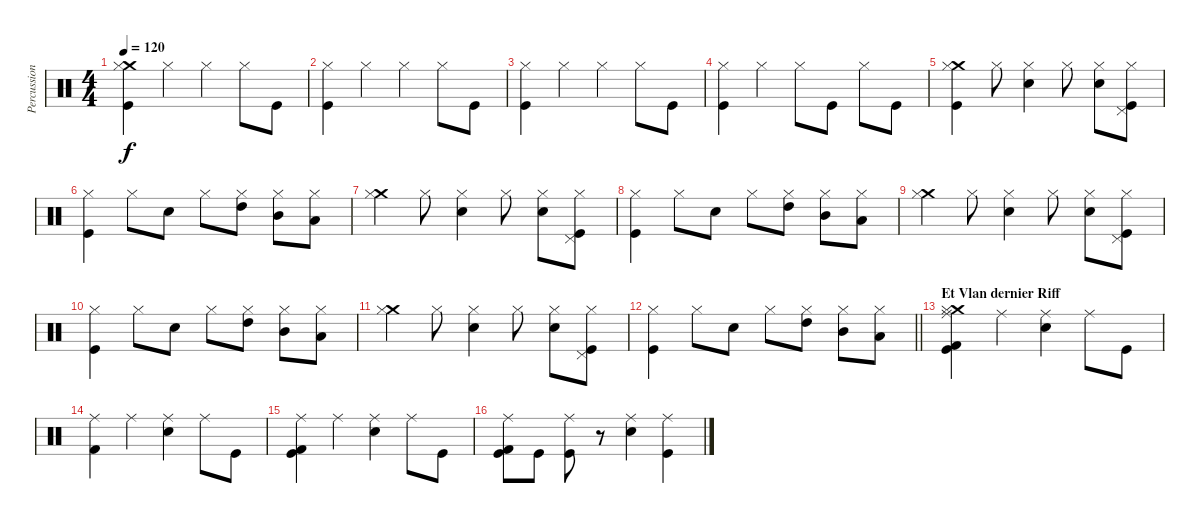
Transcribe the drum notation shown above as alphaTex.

\track ("Percussions" "Percussion") {instrument percussion}
\staff {score}
\articulation defaults
\ts (4 4)
\tempo 120
\clef neutral
\ks c
("Kick (hit)" "Crash medium (hit)" "Hi-Hat (closed)").4{dy f} "Hi-Hat (closed)".4 "Hi-Hat (closed)".4 "Hi-Hat (closed)".8 "Kick (hit)".8 |
("Kick (hit)" "Hi-Hat (closed)").4 "Hi-Hat (closed)".4 "Hi-Hat (closed)".4 "Hi-Hat (closed)".8 "Kick (hit)".8 |
("Kick (hit)" "Hi-Hat (closed)").4 "Hi-Hat (closed)".4 "Hi-Hat (closed)".4 "Hi-Hat (closed)".8 "Kick (hit)".8 |
("Kick (hit)" "Hi-Hat (closed)").4 "Hi-Hat (closed)".4 "Hi-Hat (closed)".8 "Kick (hit)".8 "Hi-Hat (closed)".8 "Kick (hit)".8 |
("Kick (hit)" "Crash medium (hit)" "Hi-Hat (closed)").4 "Hi-Hat (closed)".8 ("Electric Snare (hit)" "Hi-Hat (closed)").4 "Hi-Hat (closed)".8 ("Electric Snare (hit)" "Hi-Hat (closed)").8 ("Kick (hit)" "Pedal Hi-Hat (hit)" "Hi-Hat (closed)").8 |
("Kick (hit)" "Hi-Hat (closed)").4 "Hi-Hat (closed)".8 "Electric Snare (hit)".8 "Hi-Hat (closed)".8 ("Hi-Hat (closed)" "High Tom (hit)").8 ("Hi-Hat (closed)" "Mid Tom (hit)").8 ("Hi-Hat (closed)" "Low Tom (hit)").8 |
("Crash medium (hit)" "Hi-Hat (closed)").4 "Hi-Hat (closed)".8 ("Electric Snare (hit)" "Hi-Hat (closed)").4 "Hi-Hat (closed)".8 ("Electric Snare (hit)" "Hi-Hat (closed)").8 ("Kick (hit)" "Pedal Hi-Hat (hit)" "Hi-Hat (closed)").8 |
("Kick (hit)" "Hi-Hat (closed)").4 "Hi-Hat (closed)".8 "Electric Snare (hit)".8 "Hi-Hat (closed)".8 ("Hi-Hat (closed)" "High Tom (hit)").8 ("Hi-Hat (closed)" "Mid Tom (hit)").8 ("Hi-Hat (closed)" "Low Tom (hit)").8 |
("Crash medium (hit)" "Hi-Hat (closed)").4 "Hi-Hat (closed)".8 ("Electric Snare (hit)" "Hi-Hat (closed)").4 "Hi-Hat (closed)".8 ("Electric Snare (hit)" "Hi-Hat (closed)").8 ("Kick (hit)" "Pedal Hi-Hat (hit)" "Hi-Hat (closed)").8 |
("Kick (hit)" "Hi-Hat (closed)").4 "Hi-Hat (closed)".8 "Electric Snare (hit)".8 "Hi-Hat (closed)".8 ("Hi-Hat (closed)" "High Tom (hit)").8 ("Hi-Hat (closed)" "Mid Tom (hit)").8 ("Hi-Hat (closed)" "Low Tom (hit)").8 |
("Crash medium (hit)" "Hi-Hat (closed)").4 "Hi-Hat (closed)".8 ("Electric Snare (hit)" "Hi-Hat (closed)").4 "Hi-Hat (closed)".8 ("Electric Snare (hit)" "Hi-Hat (closed)").8 ("Kick (hit)" "Pedal Hi-Hat (hit)" "Hi-Hat (closed)").8 |
\barLineRight lightlight
("Kick (hit)" "Hi-Hat (closed)").4 "Hi-Hat (closed)".8 "Electric Snare (hit)".8 "Hi-Hat (closed)".8 ("Hi-Hat (closed)" "High Tom (hit)").8 ("Hi-Hat (closed)" "Mid Tom (hit)").8 ("Hi-Hat (closed)" "Low Tom (hit)").8 |
\section ("" "Et Vlan dernier Riff")
("Kick (hit) 2" "Crash medium (hit)" "Kick (hit)" "Ride (middle)" "Hi-Hat (closed)").4 "Ride (middle)".4 ("Electric Snare (hit)" "Ride (middle)").4 "Ride (middle)".8 "Kick (hit)".8 |
("Kick (hit) 2" "Ride (middle)").4 "Ride (middle)".4 ("Electric Snare (hit)" "Ride (middle)").4 "Ride (middle)".8 "Kick (hit)".8 |
("Kick (hit) 2" "Kick (hit)" "Ride (middle)").4 "Ride (middle)".4 ("Electric Snare (hit)" "Ride (middle)").4 "Ride (middle)".8 "Kick (hit)".8 |
("Kick (hit) 2" "Kick (hit)" "Ride (middle)").8 "Kick (hit)".8 ("Kick (hit)" "Ride (middle)").8 r.8 ("Electric Snare (hit)" "Ride (middle)").4 ("Kick (hit)" "Ride (middle)").4
